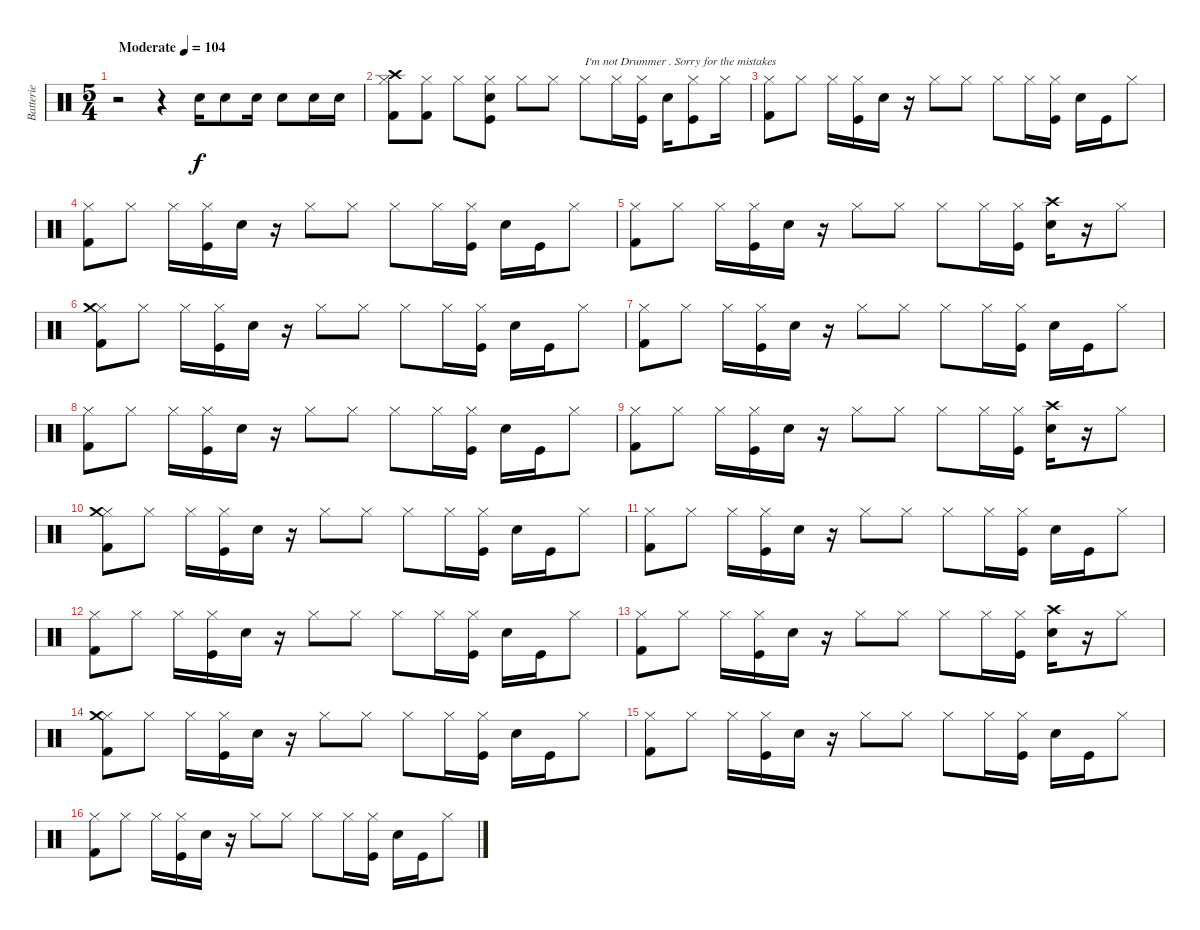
\track ("Batterie" "Batterie") {instrument percussion}
\staff {score}
\articulation defaults
\ts (5 4)
\tempo (104 "Moderate")
\clef neutral
\ks c
r.2{dy f} r.4 "Snare (hit) 2".16 "Snare (hit) 2".8 "Snare (hit) 2".16 "Snare (hit) 2".8 "Snare (hit) 2".16 "Snare (hit) 2".16 |
("Hi-Hat (closed)" "Crash high (hit)" "Kick (hit) 2").8 ("Hi-Hat (closed)" "Kick (hit) 2").8 "Hi-Hat (closed)".8 ("Hi-Hat (closed)" "Electric Snare (hit)" "Kick (hit)").8 "Hi-Hat (closed)".8 "Hi-Hat (closed)".8 "Hi-Hat (closed)".8{txt "I'm not Drummer . Sorry for the mistakes"} "Hi-Hat (closed)".16 ("Hi-Hat (closed)" "Kick (hit)").16 "Electric Snare (hit)".16 ("Hi-Hat (closed)" "Kick (hit)").8 "Hi-Hat (closed)".16 |
("Hi-Hat (closed)" "Kick (hit) 2").8 "Hi-Hat (closed)".8 "Hi-Hat (closed)".16 ("Hi-Hat (closed)" "Kick (hit)").16 "Electric Snare (hit)".16 r.16 "Hi-Hat (closed)".8 "Hi-Hat (closed)".8 "Hi-Hat (closed)".8 "Hi-Hat (closed)".16 ("Hi-Hat (closed)" "Kick (hit)").16 "Electric Snare (hit)".16 "Kick (hit)".16 "Hi-Hat (closed)".8 |
("Hi-Hat (closed)" "Kick (hit) 2").8 "Hi-Hat (closed)".8 "Hi-Hat (closed)".16 ("Hi-Hat (closed)" "Kick (hit)").16 "Electric Snare (hit)".16 r.16 "Hi-Hat (closed)".8 "Hi-Hat (closed)".8 "Hi-Hat (closed)".8 "Hi-Hat (closed)".16 ("Hi-Hat (closed)" "Kick (hit)").16 "Electric Snare (hit)".16 "Kick (hit)".16 "Hi-Hat (closed)".8 |
("Hi-Hat (closed)" "Kick (hit) 2").8 "Hi-Hat (closed)".8 "Hi-Hat (closed)".16 ("Hi-Hat (closed)" "Kick (hit)").16 "Electric Snare (hit)".16 r.16 "Hi-Hat (closed)".8 "Hi-Hat (closed)".8 "Hi-Hat (closed)".8 "Hi-Hat (closed)".16 ("Hi-Hat (closed)" "Kick (hit)").16 ("Crash high (hit)" "Electric Snare (hit)").16 r.16 "Hi-Hat (closed)".8 |
("Hi-Hat (closed)" "Crash medium (hit)" "Kick (hit) 2").8 "Hi-Hat (closed)".8 "Hi-Hat (closed)".16 ("Hi-Hat (closed)" "Kick (hit)").16 "Electric Snare (hit)".16 r.16 "Hi-Hat (closed)".8 "Hi-Hat (closed)".8 "Hi-Hat (closed)".8 "Hi-Hat (closed)".16 ("Hi-Hat (closed)" "Kick (hit)").16 "Electric Snare (hit)".16 "Kick (hit)".16 "Hi-Hat (closed)".8 |
("Hi-Hat (closed)" "Kick (hit) 2").8 "Hi-Hat (closed)".8 "Hi-Hat (closed)".16 ("Hi-Hat (closed)" "Kick (hit)").16 "Electric Snare (hit)".16 r.16 "Hi-Hat (closed)".8 "Hi-Hat (closed)".8 "Hi-Hat (closed)".8 "Hi-Hat (closed)".16 ("Hi-Hat (closed)" "Kick (hit)").16 "Electric Snare (hit)".16 "Kick (hit)".16 "Hi-Hat (closed)".8 |
("Hi-Hat (closed)" "Kick (hit) 2").8 "Hi-Hat (closed)".8 "Hi-Hat (closed)".16 ("Hi-Hat (closed)" "Kick (hit)").16 "Electric Snare (hit)".16 r.16 "Hi-Hat (closed)".8 "Hi-Hat (closed)".8 "Hi-Hat (closed)".8 "Hi-Hat (closed)".16 ("Hi-Hat (closed)" "Kick (hit)").16 "Electric Snare (hit)".16 "Kick (hit)".16 "Hi-Hat (closed)".8 |
("Hi-Hat (closed)" "Kick (hit) 2").8 "Hi-Hat (closed)".8 "Hi-Hat (closed)".16 ("Hi-Hat (closed)" "Kick (hit)").16 "Electric Snare (hit)".16 r.16 "Hi-Hat (closed)".8 "Hi-Hat (closed)".8 "Hi-Hat (closed)".8 "Hi-Hat (closed)".16 ("Hi-Hat (closed)" "Kick (hit)").16 ("Crash high (hit)" "Electric Snare (hit)").16 r.16 "Hi-Hat (closed)".8 |
("Hi-Hat (closed)" "Crash medium (hit)" "Kick (hit) 2").8 "Hi-Hat (closed)".8 "Hi-Hat (closed)".16 ("Hi-Hat (closed)" "Kick (hit)").16 "Electric Snare (hit)".16 r.16 "Hi-Hat (closed)".8 "Hi-Hat (closed)".8 "Hi-Hat (closed)".8 "Hi-Hat (closed)".16 ("Hi-Hat (closed)" "Kick (hit)").16 "Electric Snare (hit)".16 "Kick (hit)".16 "Hi-Hat (closed)".8 |
("Hi-Hat (closed)" "Kick (hit) 2").8 "Hi-Hat (closed)".8 "Hi-Hat (closed)".16 ("Hi-Hat (closed)" "Kick (hit)").16 "Electric Snare (hit)".16 r.16 "Hi-Hat (closed)".8 "Hi-Hat (closed)".8 "Hi-Hat (closed)".8 "Hi-Hat (closed)".16 ("Hi-Hat (closed)" "Kick (hit)").16 "Electric Snare (hit)".16 "Kick (hit)".16 "Hi-Hat (closed)".8 |
("Hi-Hat (closed)" "Kick (hit) 2").8 "Hi-Hat (closed)".8 "Hi-Hat (closed)".16 ("Hi-Hat (closed)" "Kick (hit)").16 "Electric Snare (hit)".16 r.16 "Hi-Hat (closed)".8 "Hi-Hat (closed)".8 "Hi-Hat (closed)".8 "Hi-Hat (closed)".16 ("Hi-Hat (closed)" "Kick (hit)").16 "Electric Snare (hit)".16 "Kick (hit)".16 "Hi-Hat (closed)".8 |
("Hi-Hat (closed)" "Kick (hit) 2").8 "Hi-Hat (closed)".8 "Hi-Hat (closed)".16 ("Hi-Hat (closed)" "Kick (hit)").16 "Electric Snare (hit)".16 r.16 "Hi-Hat (closed)".8 "Hi-Hat (closed)".8 "Hi-Hat (closed)".8 "Hi-Hat (closed)".16 ("Hi-Hat (closed)" "Kick (hit)").16 ("Crash high (hit)" "Electric Snare (hit)").16 r.16 "Hi-Hat (closed)".8 |
("Hi-Hat (closed)" "Crash medium (hit)" "Kick (hit) 2").8 "Hi-Hat (closed)".8 "Hi-Hat (closed)".16 ("Hi-Hat (closed)" "Kick (hit)").16 "Electric Snare (hit)".16 r.16 "Hi-Hat (closed)".8 "Hi-Hat (closed)".8 "Hi-Hat (closed)".8 "Hi-Hat (closed)".16 ("Hi-Hat (closed)" "Kick (hit)").16 "Electric Snare (hit)".16 "Kick (hit)".16 "Hi-Hat (closed)".8 |
("Hi-Hat (closed)" "Kick (hit) 2").8 "Hi-Hat (closed)".8 "Hi-Hat (closed)".16 ("Hi-Hat (closed)" "Kick (hit)").16 "Electric Snare (hit)".16 r.16 "Hi-Hat (closed)".8 "Hi-Hat (closed)".8 "Hi-Hat (closed)".8 "Hi-Hat (closed)".16 ("Hi-Hat (closed)" "Kick (hit)").16 "Electric Snare (hit)".16 "Kick (hit)".16 "Hi-Hat (closed)".8 |
("Hi-Hat (closed)" "Kick (hit) 2").8 "Hi-Hat (closed)".8 "Hi-Hat (closed)".16 ("Hi-Hat (closed)" "Kick (hit)").16 "Electric Snare (hit)".16 r.16 "Hi-Hat (closed)".8 "Hi-Hat (closed)".8 "Hi-Hat (closed)".8 "Hi-Hat (closed)".16 ("Hi-Hat (closed)" "Kick (hit)").16 "Electric Snare (hit)".16 "Kick (hit)".16 "Hi-Hat (closed)".8
